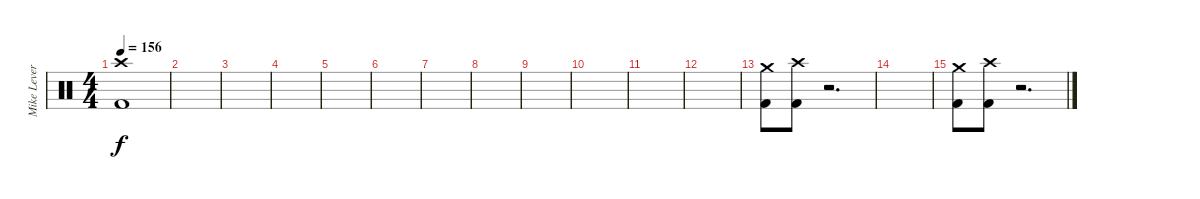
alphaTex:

\track ("Mike Leverence - Drums" "Mike Lever") {instrument percussion}
\staff {score}
\articulation defaults
\ts (4 4)
\tempo 156
\clef neutral
\ks c
("Crash high (hit)" "Kick (hit) 2").1{dy f} |
|
|
|
|
|
|
|
|
|
|
|
("Crash medium (hit)" "Kick (hit) 2").8 ("Crash high (hit)" "Kick (hit) 2").8 r.2{d} |
|
("Crash medium (hit)" "Kick (hit) 2").8 ("Crash high (hit)" "Kick (hit) 2").8 r.2{d}
